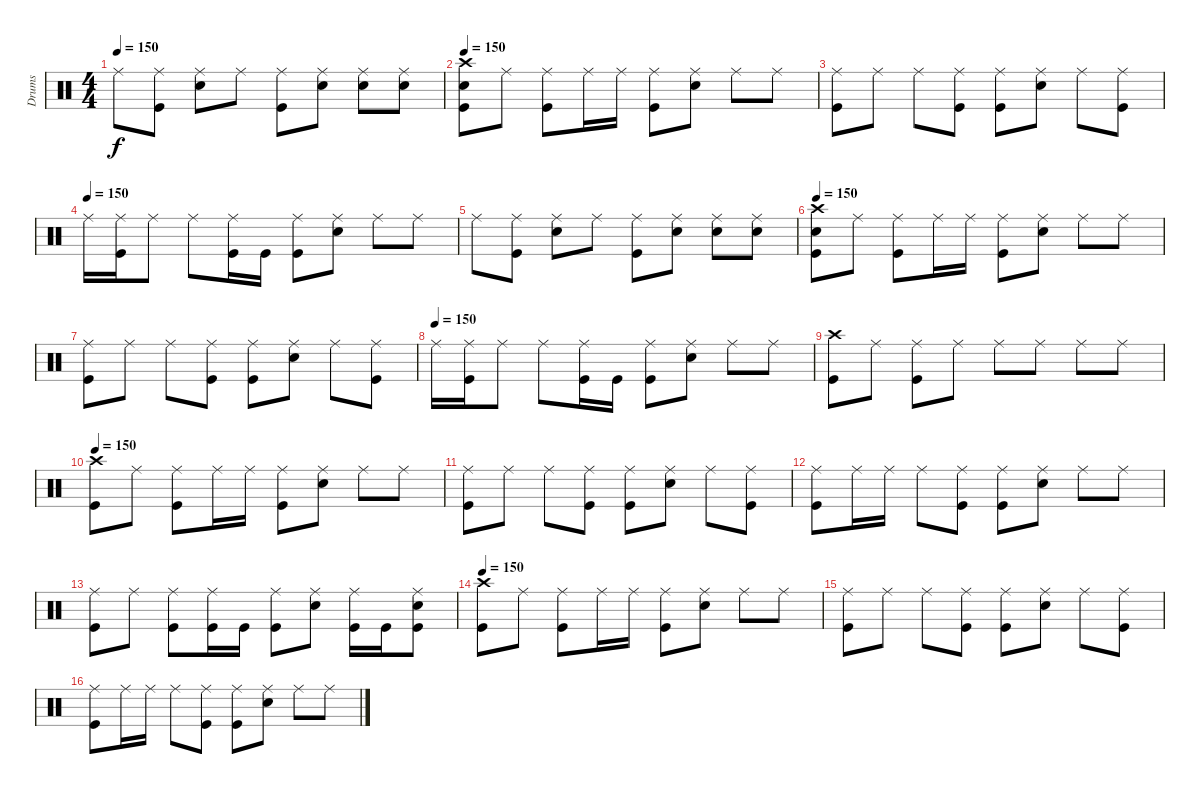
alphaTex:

\track ("Drums" "Drums") {instrument percussion}
\staff {score}
\articulation defaults
\ts (4 4)
\tempo 150
\clef neutral
\ks c "Ride (middle)".8{dy f}
("Ride (middle)" "Kick (hit)").8 ("Ride (middle)" "Electric Snare (hit)").8 "Ride (middle)".8 ("Ride (middle)" "Kick (hit)").8 ("Ride (middle)" "Electric Snare (hit)").8 ("Ride (middle)" "Electric Snare (hit)").8 ("Ride (middle)" "Electric Snare (hit)").8 |
\tempo 150
("Crash high (hit)" "Electric Snare (hit)" "Kick (hit)").8 "Ride (middle)".8 ("Ride (middle)" "Kick (hit)").8 "Ride (middle)".16 "Ride (middle)".16 ("Ride (middle)" "Kick (hit)").8 ("Ride (middle)" "Electric Snare (hit)").8 "Ride (middle)".8 "Ride (middle)".8 |
("Ride (middle)" "Kick (hit)").8 "Ride (middle)".8 "Ride (middle)".8 ("Ride (middle)" "Kick (hit)").8 ("Ride (middle)" "Kick (hit)").8 ("Ride (middle)" "Electric Snare (hit)").8 "Ride (middle)".8 ("Ride (middle)" "Kick (hit)").8 |
\tempo (150)
"Ride (middle)".16 ("Ride (middle)" "Kick (hit)").16 "Ride (middle)".8 "Ride (middle)".8 ("Ride (middle)" "Kick (hit)").16 "Kick (hit)".16 ("Ride (middle)" "Kick (hit)").8 ("Ride (middle)" "Electric Snare (hit)").8 "Ride (middle)".8 "Ride (middle)".8 |
"Ride (middle)".8 ("Ride (middle)" "Kick (hit)").8 ("Ride (middle)" "Electric Snare (hit)").8 "Ride (middle)".8 ("Ride (middle)" "Kick (hit)").8 ("Ride (middle)" "Electric Snare (hit)").8 ("Ride (middle)" "Electric Snare (hit)").8 ("Ride (middle)" "Electric Snare (hit)").8 |
\tempo 150
("Crash high (hit)" "Electric Snare (hit)" "Kick (hit)").8 "Ride (middle)".8 ("Ride (middle)" "Kick (hit)").8 "Ride (middle)".16 "Ride (middle)".16 ("Ride (middle)" "Kick (hit)").8 ("Ride (middle)" "Electric Snare (hit)").8 "Ride (middle)".8 "Ride (middle)".8 |
("Ride (middle)" "Kick (hit)").8 "Ride (middle)".8 "Ride (middle)".8 ("Ride (middle)" "Kick (hit)").8 ("Ride (middle)" "Kick (hit)").8 ("Ride (middle)" "Electric Snare (hit)").8 "Ride (middle)".8 ("Ride (middle)" "Kick (hit)").8 |
\tempo (150)
"Ride (middle)".16 ("Ride (middle)" "Kick (hit)").16 "Ride (middle)".8 "Ride (middle)".8 ("Ride (middle)" "Kick (hit)").16 "Kick (hit)".16 ("Ride (middle)" "Kick (hit)").8 ("Ride (middle)" "Electric Snare (hit)").8 "Ride (middle)".8 "Ride (middle)".8 |
("Crash high (hit)" "Kick (hit)").8 "Ride (middle)".8 ("Ride (middle)" "Kick (hit)").8 "Ride (middle)".8 "Ride (middle)".8 "Ride (middle)".8 "Ride (middle)".8 "Ride (middle)".8 |
\tempo 150
("Crash high (hit)" "Kick (hit)").8 "Ride (middle)".8 ("Ride (middle)" "Kick (hit)").8 "Ride (middle)".16 "Ride (middle)".16 ("Ride (middle)" "Kick (hit)").8 ("Ride (middle)" "Electric Snare (hit)").8 "Ride (middle)".8 "Ride (middle)".8 |
("Ride (middle)" "Kick (hit)").8 "Ride (middle)".8 "Ride (middle)".8 ("Ride (middle)" "Kick (hit)").8 ("Ride (middle)" "Kick (hit)").8 ("Ride (middle)" "Electric Snare (hit)").8 "Ride (middle)".8 ("Ride (middle)" "Kick (hit)").8 |
("Ride (middle)" "Kick (hit)").8 "Ride (middle)".16 "Ride (middle)".16 "Ride (middle)".8 ("Ride (middle)" "Kick (hit)").8 ("Ride (middle)" "Kick (hit)").8 ("Ride (middle)" "Electric Snare (hit)").8 "Ride (middle)".8 "Ride (middle)".8 |
("Ride (middle)" "Kick (hit)").8 "Ride (middle)".8 ("Ride (middle)" "Kick (hit)").8 ("Ride (middle)" "Kick (hit)").16 "Kick (hit)".16 ("Ride (middle)" "Kick (hit)").8 ("Ride (middle)" "Electric Snare (hit)").8 ("Ride (middle)" "Kick (hit)").16 "Kick (hit)".16 ("Ride (middle)" "Electric Snare (hit)" "Kick (hit)").8 |
\tempo 150
("Crash high (hit)" "Kick (hit)").8 "Ride (middle)".8 ("Ride (middle)" "Kick (hit)").8 "Ride (middle)".16 "Ride (middle)".16 ("Ride (middle)" "Kick (hit)").8 ("Ride (middle)" "Electric Snare (hit)").8 "Ride (middle)".8 "Ride (middle)".8 |
("Ride (middle)" "Kick (hit)").8 "Ride (middle)".8 "Ride (middle)".8 ("Ride (middle)" "Kick (hit)").8 ("Ride (middle)" "Kick (hit)").8 ("Ride (middle)" "Electric Snare (hit)").8 "Ride (middle)".8 ("Ride (middle)" "Kick (hit)").8 |
("Ride (middle)" "Kick (hit)").8 "Ride (middle)".16 "Ride (middle)".16 "Ride (middle)".8 ("Ride (middle)" "Kick (hit)").8 ("Ride (middle)" "Kick (hit)").8 ("Ride (middle)" "Electric Snare (hit)").8 "Ride (middle)".8 "Ride (middle)".8
